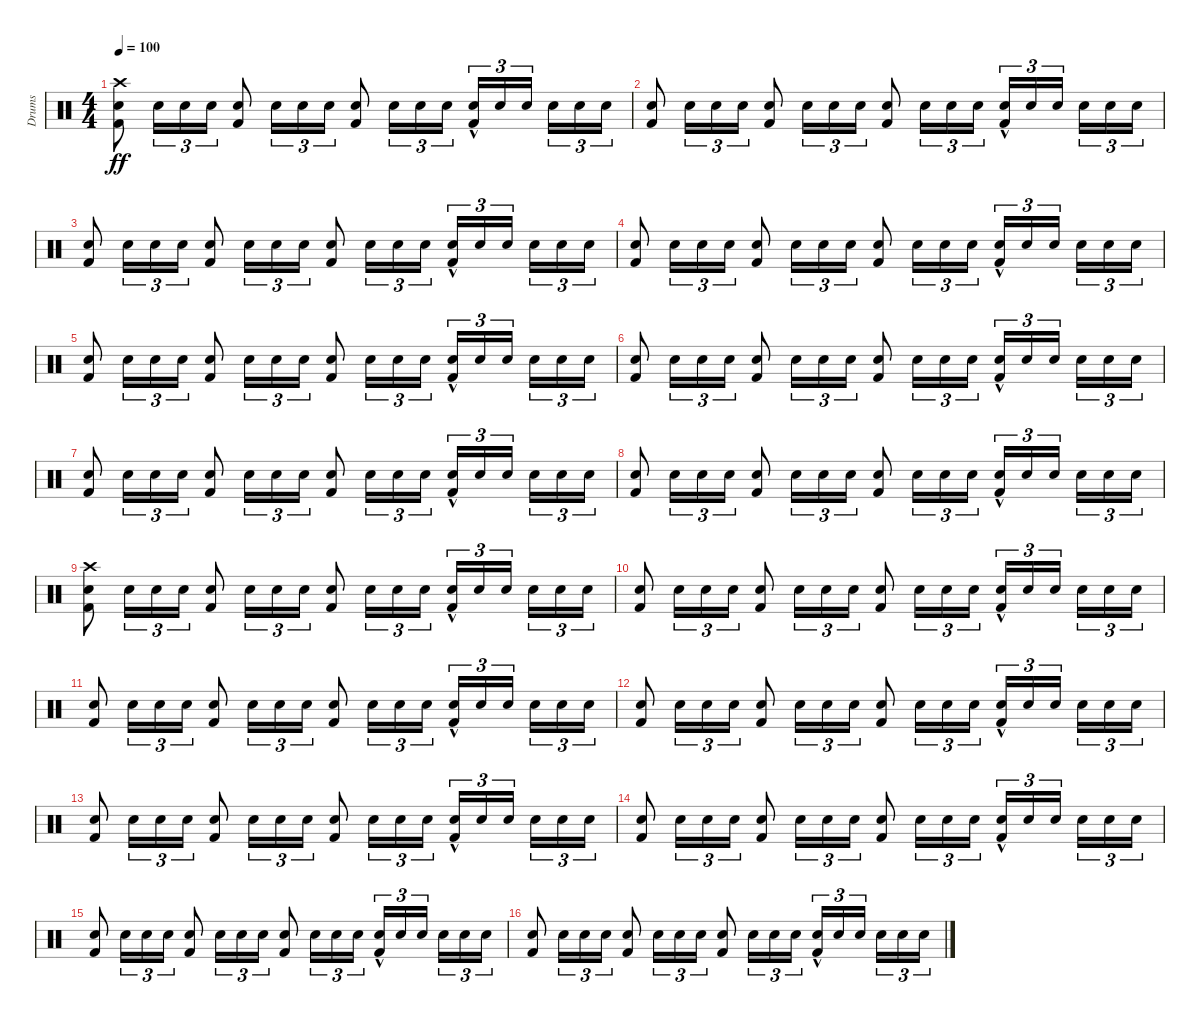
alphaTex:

\track ("Drums     " "Drums     ") {instrument percussion}
\staff {score}
\articulation defaults
\ts (4 4)
\tempo 100
\clef neutral
\ks c
("Kick (hit) 2" "Snare (hit) 2" "Crash high (hit)").8{dy ff} "Snare (hit) 2".16{tu (3 2)} "Snare (hit) 2".16{tu (3 2)} "Snare (hit) 2".16{tu (3 2)} ("Kick (hit) 2" "Snare (hit) 2").8 "Snare (hit) 2".16{tu (3 2)} "Snare (hit) 2".16{tu (3 2)} "Snare (hit) 2".16{tu (3 2)} ("Kick (hit) 2" "Snare (hit) 2").8 "Snare (hit) 2".16{tu (3 2)} "Snare (hit) 2".16{tu (3 2)} "Snare (hit) 2".16{tu (3 2)} ("Kick (hit) 2"{hac} "Snare (hit) 2").16{tu (3 2)} "Snare (hit) 2".16{tu (3 2)} "Snare (hit) 2".16{tu (3 2)} "Snare (hit) 2".16{tu (3 2)} "Snare (hit) 2".16{tu (3 2)} "Snare (hit) 2".16{tu (3 2)} |
("Kick (hit) 2" "Snare (hit) 2").8 "Snare (hit) 2".16{tu (3 2)} "Snare (hit) 2".16{tu (3 2)} "Snare (hit) 2".16{tu (3 2)} ("Kick (hit) 2" "Snare (hit) 2").8 "Snare (hit) 2".16{tu (3 2)} "Snare (hit) 2".16{tu (3 2)} "Snare (hit) 2".16{tu (3 2)} ("Kick (hit) 2" "Snare (hit) 2").8 "Snare (hit) 2".16{tu (3 2)} "Snare (hit) 2".16{tu (3 2)} "Snare (hit) 2".16{tu (3 2)} ("Kick (hit) 2"{hac} "Snare (hit) 2").16{tu (3 2)} "Snare (hit) 2".16{tu (3 2)} "Snare (hit) 2".16{tu (3 2)} "Snare (hit) 2".16{tu (3 2)} "Snare (hit) 2".16{tu (3 2)} "Snare (hit) 2".16{tu (3 2)} |
("Kick (hit) 2" "Snare (hit) 2").8 "Snare (hit) 2".16{tu (3 2)} "Snare (hit) 2".16{tu (3 2)} "Snare (hit) 2".16{tu (3 2)} ("Kick (hit) 2" "Snare (hit) 2").8 "Snare (hit) 2".16{tu (3 2)} "Snare (hit) 2".16{tu (3 2)} "Snare (hit) 2".16{tu (3 2)} ("Kick (hit) 2" "Snare (hit) 2").8 "Snare (hit) 2".16{tu (3 2)} "Snare (hit) 2".16{tu (3 2)} "Snare (hit) 2".16{tu (3 2)} ("Kick (hit) 2"{hac} "Snare (hit) 2").16{tu (3 2)} "Snare (hit) 2".16{tu (3 2)} "Snare (hit) 2".16{tu (3 2)} "Snare (hit) 2".16{tu (3 2)} "Snare (hit) 2".16{tu (3 2)} "Snare (hit) 2".16{tu (3 2)} |
("Kick (hit) 2" "Snare (hit) 2").8 "Snare (hit) 2".16{tu (3 2)} "Snare (hit) 2".16{tu (3 2)} "Snare (hit) 2".16{tu (3 2)} ("Kick (hit) 2" "Snare (hit) 2").8 "Snare (hit) 2".16{tu (3 2)} "Snare (hit) 2".16{tu (3 2)} "Snare (hit) 2".16{tu (3 2)} ("Kick (hit) 2" "Snare (hit) 2").8 "Snare (hit) 2".16{tu (3 2)} "Snare (hit) 2".16{tu (3 2)} "Snare (hit) 2".16{tu (3 2)} ("Kick (hit) 2"{hac} "Snare (hit) 2").16{tu (3 2)} "Snare (hit) 2".16{tu (3 2)} "Snare (hit) 2".16{tu (3 2)} "Snare (hit) 2".16{tu (3 2)} "Snare (hit) 2".16{tu (3 2)} "Snare (hit) 2".16{tu (3 2)} |
("Kick (hit) 2" "Snare (hit) 2").8 "Snare (hit) 2".16{tu (3 2)} "Snare (hit) 2".16{tu (3 2)} "Snare (hit) 2".16{tu (3 2)} ("Kick (hit) 2" "Snare (hit) 2").8 "Snare (hit) 2".16{tu (3 2)} "Snare (hit) 2".16{tu (3 2)} "Snare (hit) 2".16{tu (3 2)} ("Kick (hit) 2" "Snare (hit) 2").8 "Snare (hit) 2".16{tu (3 2)} "Snare (hit) 2".16{tu (3 2)} "Snare (hit) 2".16{tu (3 2)} ("Kick (hit) 2"{hac} "Snare (hit) 2").16{tu (3 2)} "Snare (hit) 2".16{tu (3 2)} "Snare (hit) 2".16{tu (3 2)} "Snare (hit) 2".16{tu (3 2)} "Snare (hit) 2".16{tu (3 2)} "Snare (hit) 2".16{tu (3 2)} |
("Kick (hit) 2" "Snare (hit) 2").8 "Snare (hit) 2".16{tu (3 2)} "Snare (hit) 2".16{tu (3 2)} "Snare (hit) 2".16{tu (3 2)} ("Kick (hit) 2" "Snare (hit) 2").8 "Snare (hit) 2".16{tu (3 2)} "Snare (hit) 2".16{tu (3 2)} "Snare (hit) 2".16{tu (3 2)} ("Kick (hit) 2" "Snare (hit) 2").8 "Snare (hit) 2".16{tu (3 2)} "Snare (hit) 2".16{tu (3 2)} "Snare (hit) 2".16{tu (3 2)} ("Kick (hit) 2"{hac} "Snare (hit) 2").16{tu (3 2)} "Snare (hit) 2".16{tu (3 2)} "Snare (hit) 2".16{tu (3 2)} "Snare (hit) 2".16{tu (3 2)} "Snare (hit) 2".16{tu (3 2)} "Snare (hit) 2".16{tu (3 2)} |
("Kick (hit) 2" "Snare (hit) 2").8 "Snare (hit) 2".16{tu (3 2)} "Snare (hit) 2".16{tu (3 2)} "Snare (hit) 2".16{tu (3 2)} ("Kick (hit) 2" "Snare (hit) 2").8 "Snare (hit) 2".16{tu (3 2)} "Snare (hit) 2".16{tu (3 2)} "Snare (hit) 2".16{tu (3 2)} ("Kick (hit) 2" "Snare (hit) 2").8 "Snare (hit) 2".16{tu (3 2)} "Snare (hit) 2".16{tu (3 2)} "Snare (hit) 2".16{tu (3 2)} ("Kick (hit) 2"{hac} "Snare (hit) 2").16{tu (3 2)} "Snare (hit) 2".16{tu (3 2)} "Snare (hit) 2".16{tu (3 2)} "Snare (hit) 2".16{tu (3 2)} "Snare (hit) 2".16{tu (3 2)} "Snare (hit) 2".16{tu (3 2)} |
("Kick (hit) 2" "Snare (hit) 2").8 "Snare (hit) 2".16{tu (3 2)} "Snare (hit) 2".16{tu (3 2)} "Snare (hit) 2".16{tu (3 2)} ("Kick (hit) 2" "Snare (hit) 2").8 "Snare (hit) 2".16{tu (3 2)} "Snare (hit) 2".16{tu (3 2)} "Snare (hit) 2".16{tu (3 2)} ("Kick (hit) 2" "Snare (hit) 2").8 "Snare (hit) 2".16{tu (3 2)} "Snare (hit) 2".16{tu (3 2)} "Snare (hit) 2".16{tu (3 2)} ("Kick (hit) 2"{hac} "Snare (hit) 2").16{tu (3 2)} "Snare (hit) 2".16{tu (3 2)} "Snare (hit) 2".16{tu (3 2)} "Snare (hit) 2".16{tu (3 2)} "Snare (hit) 2".16{tu (3 2)} "Snare (hit) 2".16{tu (3 2)} |
("Kick (hit) 2" "Snare (hit) 2" "Crash high (hit)").8 "Snare (hit) 2".16{tu (3 2)} "Snare (hit) 2".16{tu (3 2)} "Snare (hit) 2".16{tu (3 2)} ("Kick (hit) 2" "Snare (hit) 2").8 "Snare (hit) 2".16{tu (3 2)} "Snare (hit) 2".16{tu (3 2)} "Snare (hit) 2".16{tu (3 2)} ("Kick (hit) 2" "Snare (hit) 2").8 "Snare (hit) 2".16{tu (3 2)} "Snare (hit) 2".16{tu (3 2)} "Snare (hit) 2".16{tu (3 2)} ("Kick (hit) 2"{hac} "Snare (hit) 2").16{tu (3 2)} "Snare (hit) 2".16{tu (3 2)} "Snare (hit) 2".16{tu (3 2)} "Snare (hit) 2".16{tu (3 2)} "Snare (hit) 2".16{tu (3 2)} "Snare (hit) 2".16{tu (3 2)} |
("Kick (hit) 2" "Snare (hit) 2").8 "Snare (hit) 2".16{tu (3 2)} "Snare (hit) 2".16{tu (3 2)} "Snare (hit) 2".16{tu (3 2)} ("Kick (hit) 2" "Snare (hit) 2").8 "Snare (hit) 2".16{tu (3 2)} "Snare (hit) 2".16{tu (3 2)} "Snare (hit) 2".16{tu (3 2)} ("Kick (hit) 2" "Snare (hit) 2").8 "Snare (hit) 2".16{tu (3 2)} "Snare (hit) 2".16{tu (3 2)} "Snare (hit) 2".16{tu (3 2)} ("Kick (hit) 2"{hac} "Snare (hit) 2").16{tu (3 2)} "Snare (hit) 2".16{tu (3 2)} "Snare (hit) 2".16{tu (3 2)} "Snare (hit) 2".16{tu (3 2)} "Snare (hit) 2".16{tu (3 2)} "Snare (hit) 2".16{tu (3 2)} |
("Kick (hit) 2" "Snare (hit) 2").8 "Snare (hit) 2".16{tu (3 2)} "Snare (hit) 2".16{tu (3 2)} "Snare (hit) 2".16{tu (3 2)} ("Kick (hit) 2" "Snare (hit) 2").8 "Snare (hit) 2".16{tu (3 2)} "Snare (hit) 2".16{tu (3 2)} "Snare (hit) 2".16{tu (3 2)} ("Kick (hit) 2" "Snare (hit) 2").8 "Snare (hit) 2".16{tu (3 2)} "Snare (hit) 2".16{tu (3 2)} "Snare (hit) 2".16{tu (3 2)} ("Kick (hit) 2"{hac} "Snare (hit) 2").16{tu (3 2)} "Snare (hit) 2".16{tu (3 2)} "Snare (hit) 2".16{tu (3 2)} "Snare (hit) 2".16{tu (3 2)} "Snare (hit) 2".16{tu (3 2)} "Snare (hit) 2".16{tu (3 2)} |
("Kick (hit) 2" "Snare (hit) 2").8 "Snare (hit) 2".16{tu (3 2)} "Snare (hit) 2".16{tu (3 2)} "Snare (hit) 2".16{tu (3 2)} ("Kick (hit) 2" "Snare (hit) 2").8 "Snare (hit) 2".16{tu (3 2)} "Snare (hit) 2".16{tu (3 2)} "Snare (hit) 2".16{tu (3 2)} ("Kick (hit) 2" "Snare (hit) 2").8 "Snare (hit) 2".16{tu (3 2)} "Snare (hit) 2".16{tu (3 2)} "Snare (hit) 2".16{tu (3 2)} ("Kick (hit) 2"{hac} "Snare (hit) 2").16{tu (3 2)} "Snare (hit) 2".16{tu (3 2)} "Snare (hit) 2".16{tu (3 2)} "Snare (hit) 2".16{tu (3 2)} "Snare (hit) 2".16{tu (3 2)} "Snare (hit) 2".16{tu (3 2)} |
("Kick (hit) 2" "Snare (hit) 2").8 "Snare (hit) 2".16{tu (3 2)} "Snare (hit) 2".16{tu (3 2)} "Snare (hit) 2".16{tu (3 2)} ("Kick (hit) 2" "Snare (hit) 2").8 "Snare (hit) 2".16{tu (3 2)} "Snare (hit) 2".16{tu (3 2)} "Snare (hit) 2".16{tu (3 2)} ("Kick (hit) 2" "Snare (hit) 2").8 "Snare (hit) 2".16{tu (3 2)} "Snare (hit) 2".16{tu (3 2)} "Snare (hit) 2".16{tu (3 2)} ("Kick (hit) 2"{hac} "Snare (hit) 2").16{tu (3 2)} "Snare (hit) 2".16{tu (3 2)} "Snare (hit) 2".16{tu (3 2)} "Snare (hit) 2".16{tu (3 2)} "Snare (hit) 2".16{tu (3 2)} "Snare (hit) 2".16{tu (3 2)} |
("Kick (hit) 2" "Snare (hit) 2").8 "Snare (hit) 2".16{tu (3 2)} "Snare (hit) 2".16{tu (3 2)} "Snare (hit) 2".16{tu (3 2)} ("Kick (hit) 2" "Snare (hit) 2").8 "Snare (hit) 2".16{tu (3 2)} "Snare (hit) 2".16{tu (3 2)} "Snare (hit) 2".16{tu (3 2)} ("Kick (hit) 2" "Snare (hit) 2").8 "Snare (hit) 2".16{tu (3 2)} "Snare (hit) 2".16{tu (3 2)} "Snare (hit) 2".16{tu (3 2)} ("Kick (hit) 2"{hac} "Snare (hit) 2").16{tu (3 2)} "Snare (hit) 2".16{tu (3 2)} "Snare (hit) 2".16{tu (3 2)} "Snare (hit) 2".16{tu (3 2)} "Snare (hit) 2".16{tu (3 2)} "Snare (hit) 2".16{tu (3 2)} |
("Kick (hit) 2" "Snare (hit) 2").8 "Snare (hit) 2".16{tu (3 2)} "Snare (hit) 2".16{tu (3 2)} "Snare (hit) 2".16{tu (3 2)} ("Kick (hit) 2" "Snare (hit) 2").8 "Snare (hit) 2".16{tu (3 2)} "Snare (hit) 2".16{tu (3 2)} "Snare (hit) 2".16{tu (3 2)} ("Kick (hit) 2" "Snare (hit) 2").8 "Snare (hit) 2".16{tu (3 2)} "Snare (hit) 2".16{tu (3 2)} "Snare (hit) 2".16{tu (3 2)} ("Kick (hit) 2"{hac} "Snare (hit) 2").16{tu (3 2)} "Snare (hit) 2".16{tu (3 2)} "Snare (hit) 2".16{tu (3 2)} "Snare (hit) 2".16{tu (3 2)} "Snare (hit) 2".16{tu (3 2)} "Snare (hit) 2".16{tu (3 2)} |
("Kick (hit) 2" "Snare (hit) 2").8 "Snare (hit) 2".16{tu (3 2)} "Snare (hit) 2".16{tu (3 2)} "Snare (hit) 2".16{tu (3 2)} ("Kick (hit) 2" "Snare (hit) 2").8 "Snare (hit) 2".16{tu (3 2)} "Snare (hit) 2".16{tu (3 2)} "Snare (hit) 2".16{tu (3 2)} ("Kick (hit) 2" "Snare (hit) 2").8 "Snare (hit) 2".16{tu (3 2)} "Snare (hit) 2".16{tu (3 2)} "Snare (hit) 2".16{tu (3 2)} ("Kick (hit) 2"{hac} "Snare (hit) 2").16{tu (3 2)} "Snare (hit) 2".16{tu (3 2)} "Snare (hit) 2".16{tu (3 2)} "Snare (hit) 2".16{tu (3 2)} "Snare (hit) 2".16{tu (3 2)} "Snare (hit) 2".16{tu (3 2)}
